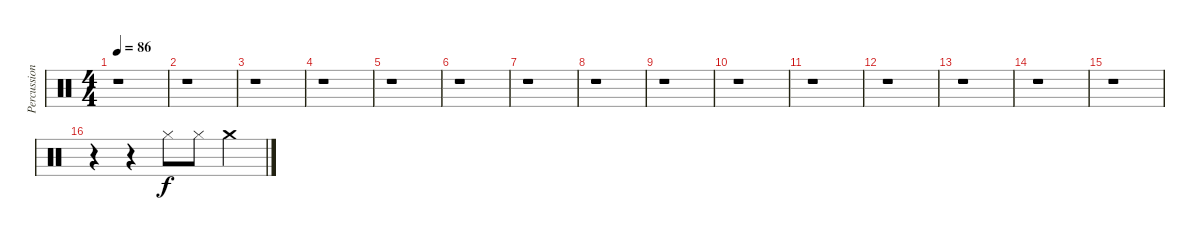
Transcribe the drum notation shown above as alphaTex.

\track ("Percussions" "Percussion") {instrument percussion}
\staff {score}
\articulation defaults
\ts (4 4)
\tempo 86
\clef neutral
\ks c
r.1{dy f} |
r.1 |
r.1 |
r.1 |
r.1 |
r.1 |
r.1 |
r.1 |
r.1 |
r.1 |
r.1 |
r.1 |
r.1 |
r.1 |
r.1 |
r.4 r.4 "Hi-Hat (closed)".8 "Hi-Hat (closed)".8 "Crash medium (hit)".4
